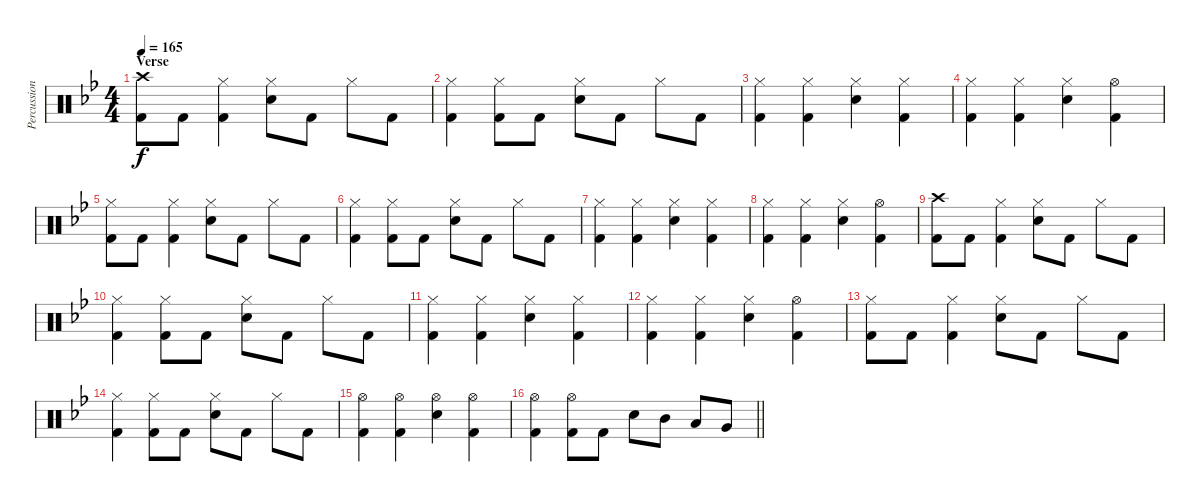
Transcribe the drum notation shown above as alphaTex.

\track ("Percussion - Aaron" "Percussion") {instrument percussion}
\staff {score}
\articulation defaults
\ts (4 4)
\section ("" "Verse")
\tempo 165
\clef neutral
\ks gminor
("Crash high (hit)" "Kick (hit) 2").8{dy f} "Kick (hit) 2".8 ("Hi-Hat (closed)" "Kick (hit) 2").4 ("Hi-Hat (closed)" "Electric Snare (hit)").8 "Kick (hit) 2".8 "Hi-Hat (closed)".8 "Kick (hit) 2".8 |
("Hi-Hat (closed)" "Kick (hit) 2").4 ("Hi-Hat (closed)" "Kick (hit) 2").8 "Kick (hit) 2".8 ("Hi-Hat (closed)" "Electric Snare (hit)").8 "Kick (hit) 2".8 "Hi-Hat (closed)".8 "Kick (hit) 2".8 |
("Hi-Hat (closed)" "Kick (hit) 2").4 ("Hi-Hat (closed)" "Kick (hit) 2").4 ("Hi-Hat (closed)" "Electric Snare (hit)").4 ("Hi-Hat (closed)" "Kick (hit) 2").4 |
("Hi-Hat (closed)" "Kick (hit) 2").4 ("Hi-Hat (closed)" "Kick (hit) 2").4 ("Hi-Hat (closed)" "Electric Snare (hit)").4 ("Hi-Hat (open)" "Kick (hit) 2").4 |
("Hi-Hat (closed)" "Kick (hit) 2").8 "Kick (hit) 2".8 ("Hi-Hat (closed)" "Kick (hit) 2").4 ("Hi-Hat (closed)" "Electric Snare (hit)").8 "Kick (hit) 2".8 "Hi-Hat (closed)".8 "Kick (hit) 2".8 |
("Hi-Hat (closed)" "Kick (hit) 2").4 ("Hi-Hat (closed)" "Kick (hit) 2").8 "Kick (hit) 2".8 ("Hi-Hat (closed)" "Electric Snare (hit)").8 "Kick (hit) 2".8 "Hi-Hat (closed)".8 "Kick (hit) 2".8 |
("Hi-Hat (closed)" "Kick (hit) 2").4 ("Hi-Hat (closed)" "Kick (hit) 2").4 ("Hi-Hat (closed)" "Electric Snare (hit)").4 ("Hi-Hat (closed)" "Kick (hit) 2").4 |
("Hi-Hat (closed)" "Kick (hit) 2").4 ("Hi-Hat (closed)" "Kick (hit) 2").4 ("Hi-Hat (closed)" "Electric Snare (hit)").4 ("Hi-Hat (open)" "Kick (hit) 2").4 |
("Crash high (hit)" "Kick (hit) 2").8 "Kick (hit) 2".8 ("Hi-Hat (closed)" "Kick (hit) 2").4 ("Hi-Hat (closed)" "Electric Snare (hit)").8 "Kick (hit) 2".8 "Hi-Hat (closed)".8 "Kick (hit) 2".8 |
("Hi-Hat (closed)" "Kick (hit) 2").4 ("Hi-Hat (closed)" "Kick (hit) 2").8 "Kick (hit) 2".8 ("Hi-Hat (closed)" "Electric Snare (hit)").8 "Kick (hit) 2".8 "Hi-Hat (closed)".8 "Kick (hit) 2".8 |
("Hi-Hat (closed)" "Kick (hit) 2").4 ("Hi-Hat (closed)" "Kick (hit) 2").4 ("Hi-Hat (closed)" "Electric Snare (hit)").4 ("Hi-Hat (closed)" "Kick (hit) 2").4 |
("Hi-Hat (closed)" "Kick (hit) 2").4 ("Hi-Hat (closed)" "Kick (hit) 2").4 ("Hi-Hat (closed)" "Electric Snare (hit)").4 ("Hi-Hat (open)" "Kick (hit) 2").4 |
("Hi-Hat (closed)" "Kick (hit) 2").8 "Kick (hit) 2".8 ("Hi-Hat (closed)" "Kick (hit) 2").4 ("Hi-Hat (closed)" "Electric Snare (hit)").8 "Kick (hit) 2".8 "Hi-Hat (closed)".8 "Kick (hit) 2".8 |
("Hi-Hat (closed)" "Kick (hit) 2").4 ("Hi-Hat (closed)" "Kick (hit) 2").8 "Kick (hit) 2".8 ("Hi-Hat (closed)" "Electric Snare (hit)").8 "Kick (hit) 2".8 "Hi-Hat (closed)".8 "Kick (hit) 2".8 |
("Hi-Hat (open)" "Kick (hit) 2").4 ("Hi-Hat (open)" "Kick (hit) 2").4 ("Hi-Hat (open)" "Electric Snare (hit)").4 ("Hi-Hat (open)" "Kick (hit) 2").4 |
\barLineRight lightlight
("Hi-Hat (open)" "Kick (hit) 2").4 ("Hi-Hat (open)" "Kick (hit) 2").8 "Kick (hit) 2".8 "Electric Snare (hit)".8 "Mid Tom (hit)".8 "Low Tom (hit)".8 "Very Low Tom (hit)".8
